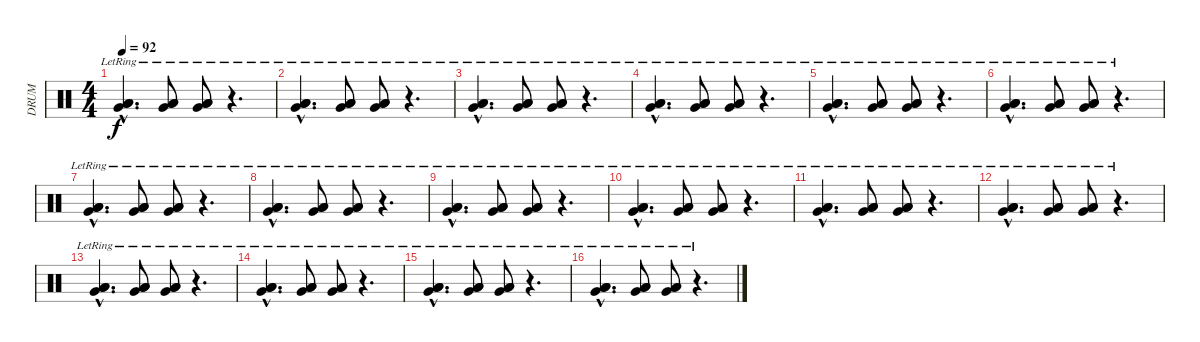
\track ("DRUM" "DRUM") {instrument percussion}
\staff {score}
\articulation defaults
\ts (4 4)
\tempo 92
\clef neutral
\ks c
("Low Floor Tom (hit)"{hac lr} "Very Low Tom (hit)"{hac} "Low Tom (hit)"{hac}).4{d dy f volume 12} ("Low Floor Tom (hit)"{lr} "Very Low Tom (hit)" "Low Tom (hit)").8 ("Low Floor Tom (hit)"{lr} "Very Low Tom (hit)"{lr} "Low Tom (hit)").8 r.4{d} |
("Low Floor Tom (hit)"{hac lr} "Very Low Tom (hit)"{hac} "Low Tom (hit)"{hac}).4{d} ("Low Floor Tom (hit)"{lr} "Very Low Tom (hit)" "Low Tom (hit)").8 ("Low Floor Tom (hit)"{lr} "Very Low Tom (hit)"{lr} "Low Tom (hit)").8 r.4{d} |
("Low Floor Tom (hit)"{hac lr} "Very Low Tom (hit)"{hac} "Low Tom (hit)"{hac}).4{d} ("Low Floor Tom (hit)"{lr} "Very Low Tom (hit)" "Low Tom (hit)").8 ("Low Floor Tom (hit)"{lr} "Very Low Tom (hit)"{lr} "Low Tom (hit)").8 r.4{d} |
("Low Floor Tom (hit)"{hac lr} "Very Low Tom (hit)"{hac} "Low Tom (hit)"{hac}).4{d} ("Low Floor Tom (hit)"{lr} "Very Low Tom (hit)" "Low Tom (hit)").8 ("Low Floor Tom (hit)"{lr} "Very Low Tom (hit)"{lr} "Low Tom (hit)").8 r.4{d} |
("Low Floor Tom (hit)"{hac lr} "Very Low Tom (hit)"{hac} "Low Tom (hit)"{hac}).4{d} ("Low Floor Tom (hit)"{lr} "Very Low Tom (hit)" "Low Tom (hit)").8 ("Low Floor Tom (hit)"{lr} "Very Low Tom (hit)"{lr} "Low Tom (hit)").8 r.4{d} |
("Low Floor Tom (hit)"{hac lr} "Very Low Tom (hit)"{hac} "Low Tom (hit)"{hac}).4{d} ("Low Floor Tom (hit)"{lr} "Very Low Tom (hit)" "Low Tom (hit)").8 ("Low Floor Tom (hit)"{lr} "Very Low Tom (hit)"{lr} "Low Tom (hit)").8 r.4{d} |
("Low Floor Tom (hit)"{hac lr} "Very Low Tom (hit)"{hac} "Low Tom (hit)"{hac}).4{d} ("Low Floor Tom (hit)"{lr} "Very Low Tom (hit)" "Low Tom (hit)").8 ("Low Floor Tom (hit)"{lr} "Very Low Tom (hit)"{lr} "Low Tom (hit)").8 r.4{d} |
("Low Floor Tom (hit)"{hac lr} "Very Low Tom (hit)"{hac} "Low Tom (hit)"{hac}).4{d} ("Low Floor Tom (hit)"{lr} "Very Low Tom (hit)" "Low Tom (hit)").8 ("Low Floor Tom (hit)"{lr} "Very Low Tom (hit)"{lr} "Low Tom (hit)").8 r.4{d} |
("Low Floor Tom (hit)"{hac lr} "Very Low Tom (hit)"{hac} "Low Tom (hit)"{hac}).4{d} ("Low Floor Tom (hit)"{lr} "Very Low Tom (hit)" "Low Tom (hit)").8 ("Low Floor Tom (hit)"{lr} "Very Low Tom (hit)"{lr} "Low Tom (hit)").8 r.4{d} |
("Low Floor Tom (hit)"{hac lr} "Very Low Tom (hit)"{hac} "Low Tom (hit)"{hac}).4{d} ("Low Floor Tom (hit)"{lr} "Very Low Tom (hit)" "Low Tom (hit)").8 ("Low Floor Tom (hit)"{lr} "Very Low Tom (hit)"{lr} "Low Tom (hit)").8 r.4{d} |
("Low Floor Tom (hit)"{hac lr} "Very Low Tom (hit)"{hac} "Low Tom (hit)"{hac}).4{d} ("Low Floor Tom (hit)"{lr} "Very Low Tom (hit)" "Low Tom (hit)").8 ("Low Floor Tom (hit)"{lr} "Very Low Tom (hit)"{lr} "Low Tom (hit)").8 r.4{d} |
("Low Floor Tom (hit)"{hac lr} "Very Low Tom (hit)"{hac} "Low Tom (hit)"{hac}).4{d} ("Low Floor Tom (hit)"{lr} "Very Low Tom (hit)" "Low Tom (hit)").8 ("Low Floor Tom (hit)"{lr} "Very Low Tom (hit)"{lr} "Low Tom (hit)").8 r.4{d} |
("Low Floor Tom (hit)"{hac lr} "Very Low Tom (hit)"{hac} "Low Tom (hit)"{hac}).4{d} ("Low Floor Tom (hit)"{lr} "Very Low Tom (hit)" "Low Tom (hit)").8 ("Low Floor Tom (hit)"{lr} "Very Low Tom (hit)"{lr} "Low Tom (hit)").8 r.4{d} |
("Low Floor Tom (hit)"{hac lr} "Very Low Tom (hit)"{hac} "Low Tom (hit)"{hac}).4{d} ("Low Floor Tom (hit)"{lr} "Very Low Tom (hit)" "Low Tom (hit)").8 ("Low Floor Tom (hit)"{lr} "Very Low Tom (hit)"{lr} "Low Tom (hit)").8 r.4{d} |
("Low Floor Tom (hit)"{hac lr} "Very Low Tom (hit)"{hac} "Low Tom (hit)"{hac}).4{d} ("Low Floor Tom (hit)"{lr} "Very Low Tom (hit)" "Low Tom (hit)").8 ("Low Floor Tom (hit)"{lr} "Very Low Tom (hit)"{lr} "Low Tom (hit)").8 r.4{d} |
("Low Floor Tom (hit)"{hac lr} "Very Low Tom (hit)"{hac} "Low Tom (hit)"{hac}).4{d} ("Low Floor Tom (hit)"{lr} "Very Low Tom (hit)" "Low Tom (hit)").8 ("Low Floor Tom (hit)"{lr} "Very Low Tom (hit)"{lr} "Low Tom (hit)").8 r.4{d}
